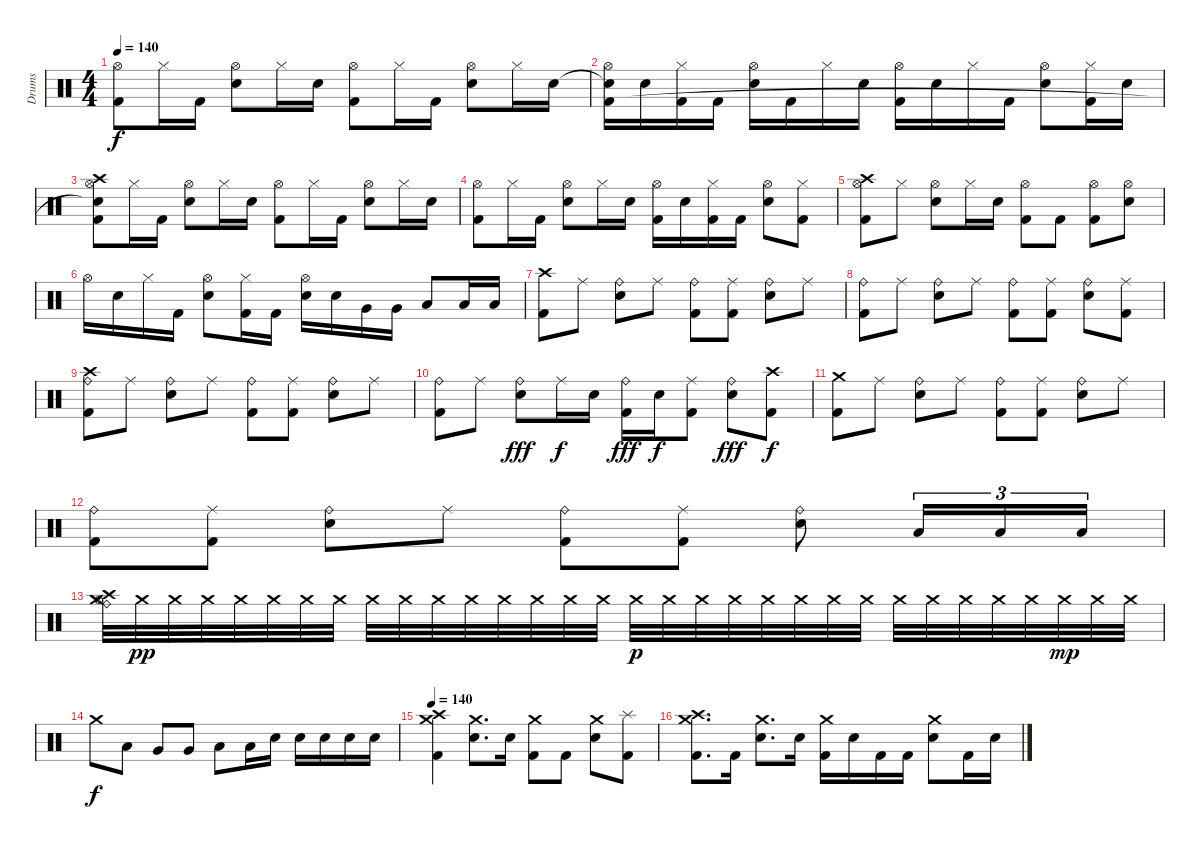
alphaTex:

\track ("Drums" "Drums") {instrument percussion}
\staff {score}
\articulation defaults
\ts (4 4)
\tempo 140
\clef neutral
\ks c
("Hi-Hat (open)" "Kick (hit) 2").8{dy f} "Hi-Hat (closed)".16 "Kick (hit) 2".16 ("Hi-Hat (open)" "Electric Snare (hit)").8 "Hi-Hat (closed)".16 "Electric Snare (hit)".16 ("Hi-Hat (open)" "Kick (hit) 2").8 "Hi-Hat (closed)".16 "Kick (hit) 2".16 ("Hi-Hat (open)" "Electric Snare (hit)").8 "Hi-Hat (closed)".16 "Electric Snare (hit)".16 |
("Snare (hit)"{t} "Hi-Hat (open)" "Kick (hit) 2").16 "Electric Snare (hit)".16 ("Hi-Hat (closed)" "Kick (hit) 2").16 "Kick (hit) 2".16 ("Hi-Hat (open)" "Electric Snare (hit)").16 "Kick (hit) 2".16 "Hi-Hat (closed)".16 "Electric Snare (hit)".16 ("Hi-Hat (open)" "Kick (hit) 2").16 "Electric Snare (hit)".16 "Hi-Hat (closed)".16 "Kick (hit) 2".16 ("Hi-Hat (open)" "Electric Snare (hit)").8 ("Hi-Hat (closed)" "Kick (hit) 2").16 "Electric Snare (hit)".16 |
("Crash high (hit)" "Hi-Hat (open)" "Snare (hit)"{t} "Kick (hit) 2").8 "Hi-Hat (closed)".16 "Kick (hit) 2".16 ("Hi-Hat (open)" "Electric Snare (hit)").8 "Hi-Hat (closed)".16 "Electric Snare (hit)".16 ("Hi-Hat (open)" "Kick (hit) 2").8 "Hi-Hat (closed)".16 "Kick (hit) 2".16 ("Hi-Hat (open)" "Electric Snare (hit)").8 "Hi-Hat (closed)".16 "Electric Snare (hit)".16 |
("Hi-Hat (open)" "Kick (hit) 2").8 "Hi-Hat (closed)".16 "Kick (hit) 2".16 ("Hi-Hat (open)" "Electric Snare (hit)").8 "Hi-Hat (closed)".16 "Electric Snare (hit)".16 ("Hi-Hat (open)" "Kick (hit) 2").16 "Electric Snare (hit)".16 ("Hi-Hat (closed)" "Kick (hit) 2").16 "Kick (hit) 2".16 ("Hi-Hat (open)" "Electric Snare (hit)").8 ("Hi-Hat (closed)" "Kick (hit) 2").8 |
("Crash high (hit)" "Hi-Hat (open)" "Kick (hit) 2").8 "Hi-Hat (closed)".8 ("Hi-Hat (open)" "Electric Snare (hit)").8 "Hi-Hat (closed)".16 "Electric Snare (hit)".16 ("Hi-Hat (open)" "Kick (hit) 2").8 "Kick (hit) 2".8 ("Hi-Hat (open)" "Kick (hit) 2").8 ("Hi-Hat (open)" "Electric Snare (hit)").8 |
"Hi-Hat (open)".16 "Electric Snare (hit)".16 "Hi-Hat (closed)".16 "Kick (hit) 2".16 ("Hi-Hat (open)" "Electric Snare (hit)").8 ("Hi-Hat (closed)" "Kick (hit) 2").16 "Kick (hit) 2".16 ("Hi-Hat (open)" "Electric Snare (hit)").16 "Electric Snare (hit)".16 "Very Low Tom (hit)".16 "Very Low Tom (hit)".16 "Low Floor Tom (hit)".8 "Low Floor Tom (hit)".16 "Low Floor Tom (hit)".16 |
("Crash high (hit)" "Kick (hit) 2").8 "Ride (middle)".8 ("Ride (bell)" "Electric Snare (hit)").8 "Ride (middle)".8 ("Ride (bell)" "Kick (hit) 2").8 ("Ride (middle)" "Kick (hit) 2").8 ("Ride (bell)" "Electric Snare (hit)").8 "Ride (middle)".8 |
("Ride (bell)" "Kick (hit) 2").8 "Ride (middle)".8 ("Ride (bell)" "Electric Snare (hit)").8 "Ride (middle)".8 ("Ride (bell)" "Kick (hit) 2").8 ("Ride (middle)" "Kick (hit) 2").8 ("Ride (bell)" "Electric Snare (hit)").8 ("Ride (middle)" "Kick (hit) 2").8 |
("Crash high (hit)" "Ride (bell)" "Kick (hit) 2").8 "Ride (middle)".8 ("Ride (bell)" "Electric Snare (hit)").8 "Ride (middle)".8 ("Ride (bell)" "Kick (hit) 2").8 ("Ride (middle)" "Kick (hit) 2").8 ("Ride (bell)" "Electric Snare (hit)").8 "Ride (middle)".8 |
("Ride (bell)" "Kick (hit) 2").8 "Ride (middle)".8 ("Ride (bell)" "Electric Snare (hit)").8{dy fff} "Ride (middle)".16{dy f} "Electric Snare (hit)".16 ("Ride (bell)" "Kick (hit) 2").16{dy fff} "Electric Snare (hit)".16{dy f} ("Ride (middle)" "Kick (hit) 2").8 ("Ride (bell)" "Electric Snare (hit)").8{dy fff} ("Crash high (hit)" "Kick (hit) 2").8{dy f} |
("Crash medium (hit)" "Kick (hit) 2").8 "Ride (middle)".8 ("Ride (bell)" "Electric Snare (hit)").8 "Ride (middle)".8 ("Ride (bell)" "Kick (hit) 2").8 ("Ride (middle)" "Kick (hit) 2").8 ("Ride (bell)" "Electric Snare (hit)").8 "Ride (middle)".8 |
("Ride (bell)" "Kick (hit) 2").8 ("Ride (middle)" "Kick (hit) 2").8 ("Ride (bell)" "Electric Snare (hit)").8 "Ride (middle)".8 ("Ride (bell)" "Kick (hit) 2").8 ("Ride (middle)" "Kick (hit) 2").8 ("Ride (bell)" "Electric Snare (hit)").8 "Low Floor Tom (hit)".16{tu (3 2)} "Low Floor Tom (hit)".16{tu (3 2)} "Low Floor Tom (hit)".16{tu (3 2)} |
("Crash medium (hit)" "Crash high (hit)" "Ride (bell)" "Hi-Hat (open)").32 "Crash medium (hit)".32{dy pp} "Crash medium (hit)".32 "Crash medium (hit)".32 "Crash medium (hit)".32 "Crash medium (hit)".32 "Crash medium (hit)".32 "Crash medium (hit)".32 "Crash medium (hit)".32 "Crash medium (hit)".32 "Crash medium (hit)".32 "Crash medium (hit)".32 "Crash medium (hit)".32 "Crash medium (hit)".32 "Crash medium (hit)".32 "Crash medium (hit)".32 "Crash medium (hit)".32{dy p} "Crash medium (hit)".32 "Crash medium (hit)".32 "Crash medium (hit)".32 "Crash medium (hit)".32 "Crash medium (hit)".32 "Crash medium (hit)".32 "Crash medium (hit)".32 "Crash medium (hit)".32 "Crash medium (hit)".32 "Crash medium (hit)".32 "Crash medium (hit)".32 "Crash medium (hit)".32 "Crash medium (hit)".32{dy mp} "Crash medium (hit)".32 "Crash medium (hit)".32 |
"Crash medium (hit)".8{dy f} "Low Tom (hit)".8 "Very Low Tom (hit)".8 "Very Low Tom (hit)".8 "Low Floor Tom (hit)".8 "Low Floor Tom (hit)".16 "Electric Snare (hit)".16 "Electric Snare (hit)".16 "Electric Snare (hit)".16 "Electric Snare (hit)".16 "Electric Snare (hit)".16 |
\tempo 140
("Crash medium (hit)" "Crash high (hit)" "Kick (hit) 2").4 ("Crash medium (hit)" "Electric Snare (hit)").8{d} "Electric Snare (hit)".16 ("Crash medium (hit)" "Kick (hit) 2").8 "Kick (hit) 2".8 ("Crash medium (hit)" "Electric Snare (hit)").8 ("Splash (hit)" "Kick (hit) 2").8 |
("Crash medium (hit)" "Crash high (hit)" "Kick (hit) 2").8{d} "Kick (hit) 2".16 ("Crash medium (hit)" "Electric Snare (hit)").8{d} "Electric Snare (hit)".16 ("Crash medium (hit)" "Kick (hit) 2").16 "Electric Snare (hit)".16 "Kick (hit) 2".16 "Kick (hit) 2".16 ("Crash medium (hit)" "Electric Snare (hit)").8 "Kick (hit) 2".16 "Electric Snare (hit)".16
